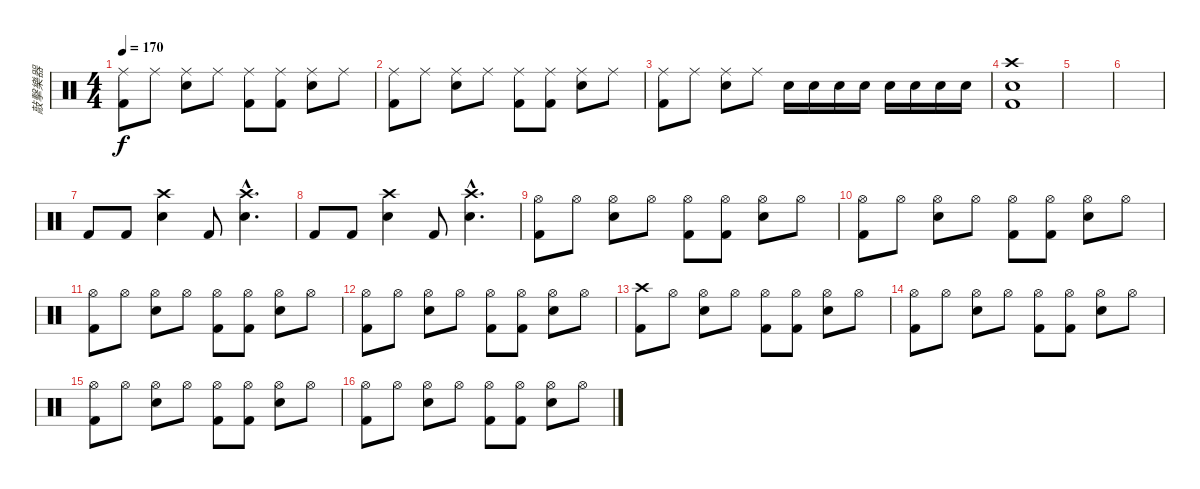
\track ("敲擊樂器" "敲擊樂器") {instrument percussion}
\staff {score}
\articulation defaults
\ts (4 4)
\tempo 170
\clef neutral
\ks c
("Ride (middle)" "Kick (hit) 2").8{dy f} "Ride (middle)".8 ("Ride (middle)" "Snare (hit) 2").8 "Ride (middle)".8 ("Ride (middle)" "Kick (hit) 2").8 ("Ride (middle)" "Kick (hit) 2").8 ("Ride (middle)" "Snare (hit) 2").8 "Ride (middle)".8 |
("Ride (middle)" "Kick (hit) 2").8 "Ride (middle)".8 ("Ride (middle)" "Snare (hit) 2").8 "Ride (middle)".8 ("Ride (middle)" "Kick (hit) 2").8 ("Ride (middle)" "Kick (hit) 2").8 ("Ride (middle)" "Snare (hit) 2").8 "Ride (middle)".8 |
("Ride (middle)" "Kick (hit) 2").8 "Ride (middle)".8 ("Ride (middle)" "Snare (hit) 2").8 "Ride (middle)".8 "Snare (hit) 2".16 "Snare (hit) 2".16 "Snare (hit) 2".16 "Snare (hit) 2".16 "Snare (hit) 2".16 "Snare (hit) 2".16 "Snare (hit) 2".16 "Snare (hit) 2".16 |
("Crash high (hit)" "Kick (hit) 2" "Snare (hit) 2").1 |
|
|
"Kick (hit) 2".8 "Kick (hit) 2".8 ("Crash high (hit)" "Snare (hit) 2").4 "Kick (hit) 2".8 ("Crash high (hit)"{hac} "Snare (hit) 2"{hac}).4{d} |
"Kick (hit) 2".8 "Kick (hit) 2".8 ("Crash high (hit)" "Snare (hit) 2").4 "Kick (hit) 2".8 ("Crash high (hit)"{hac} "Snare (hit) 2"{hac}).4{d} |
("Hi-Hat (open)" "Kick (hit) 2").8 "Hi-Hat (open)".8 ("Hi-Hat (open)" "Snare (hit) 2").8 "Hi-Hat (open)".8 ("Hi-Hat (open)" "Kick (hit) 2").8 ("Hi-Hat (open)" "Kick (hit) 2").8 ("Hi-Hat (open)" "Snare (hit) 2").8 "Hi-Hat (open)".8 |
("Hi-Hat (open)" "Kick (hit) 2").8 "Hi-Hat (open)".8 ("Hi-Hat (open)" "Snare (hit) 2").8 "Hi-Hat (open)".8 ("Hi-Hat (open)" "Kick (hit) 2").8 ("Hi-Hat (open)" "Kick (hit) 2").8 ("Hi-Hat (open)" "Snare (hit) 2").8 "Hi-Hat (open)".8 |
("Hi-Hat (open)" "Kick (hit) 2").8 "Hi-Hat (open)".8 ("Hi-Hat (open)" "Snare (hit) 2").8 "Hi-Hat (open)".8 ("Hi-Hat (open)" "Kick (hit) 2").8 ("Hi-Hat (open)" "Kick (hit) 2").8 ("Hi-Hat (open)" "Snare (hit) 2").8 "Hi-Hat (open)".8 |
("Hi-Hat (open)" "Kick (hit) 2").8 "Hi-Hat (open)".8 ("Hi-Hat (open)" "Snare (hit) 2").8 "Hi-Hat (open)".8 ("Hi-Hat (open)" "Kick (hit) 2").8 ("Hi-Hat (open)" "Kick (hit) 2").8 ("Hi-Hat (open)" "Snare (hit) 2").8 "Hi-Hat (open)".8 |
("Crash high (hit)" "Kick (hit) 2").8 "Hi-Hat (open)".8 ("Hi-Hat (open)" "Snare (hit) 2").8 "Hi-Hat (open)".8 ("Hi-Hat (open)" "Kick (hit) 2").8 ("Hi-Hat (open)" "Kick (hit) 2").8 ("Hi-Hat (open)" "Snare (hit) 2").8 "Hi-Hat (open)".8 |
("Hi-Hat (open)" "Kick (hit) 2").8 "Hi-Hat (open)".8 ("Hi-Hat (open)" "Snare (hit) 2").8 "Hi-Hat (open)".8 ("Hi-Hat (open)" "Kick (hit) 2").8 ("Hi-Hat (open)" "Kick (hit) 2").8 ("Hi-Hat (open)" "Snare (hit) 2").8 "Hi-Hat (open)".8 |
("Hi-Hat (open)" "Kick (hit) 2").8 "Hi-Hat (open)".8 ("Hi-Hat (open)" "Snare (hit) 2").8 "Hi-Hat (open)".8 ("Hi-Hat (open)" "Kick (hit) 2").8 ("Hi-Hat (open)" "Kick (hit) 2").8 ("Hi-Hat (open)" "Snare (hit) 2").8 "Hi-Hat (open)".8 |
("Hi-Hat (open)" "Kick (hit) 2").8 "Hi-Hat (open)".8 ("Hi-Hat (open)" "Snare (hit) 2").8 "Hi-Hat (open)".8 ("Hi-Hat (open)" "Kick (hit) 2").8 ("Hi-Hat (open)" "Kick (hit) 2").8 ("Hi-Hat (open)" "Snare (hit) 2").8 "Hi-Hat (open)".8
